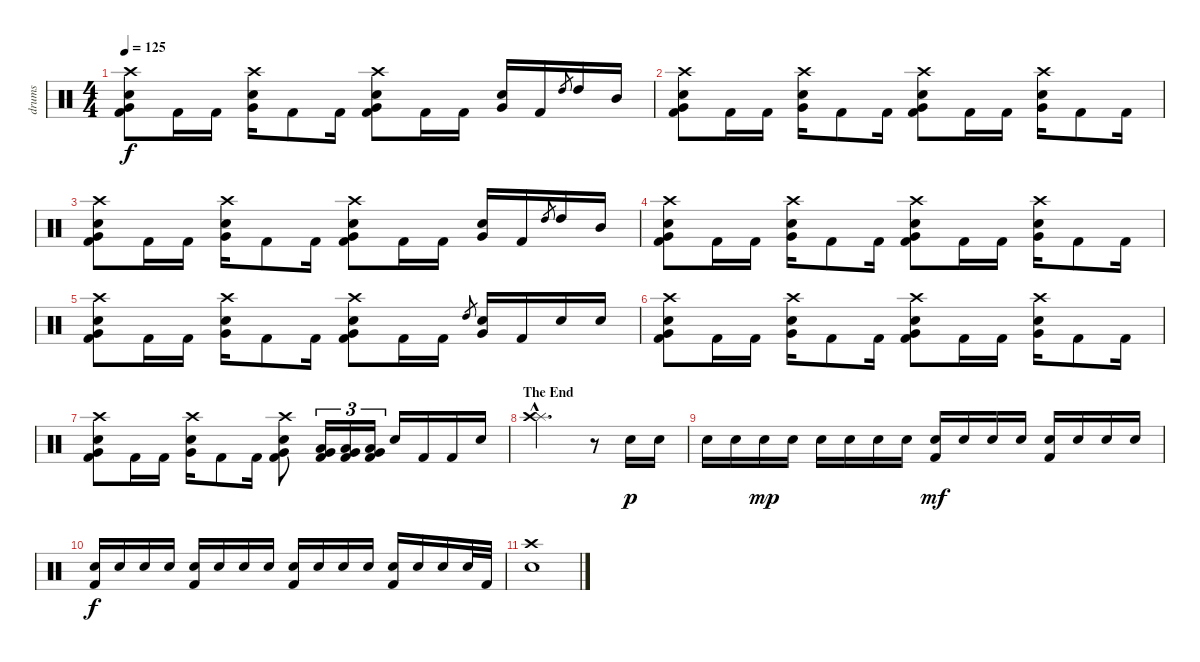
\track ("drums" "drums") {instrument percussion}
\staff {score}
\articulation defaults
\ts (4 4)
\tempo 125
\clef neutral
\ks c
("Crash high (hit)" "Electric Snare (hit)" "Very Low Tom (hit)" "Kick (hit) 2").8{dy f} "Kick (hit) 2".16 "Kick (hit) 2".16 ("Crash high (hit)" "Electric Snare (hit)" "Very Low Tom (hit)").16 "Kick (hit) 2".8 "Kick (hit) 2".16 ("Crash high (hit)" "Electric Snare (hit)" "Very Low Tom (hit)" "Kick (hit) 2").8 "Kick (hit) 2".16 "Kick (hit) 2".16 ("Electric Snare (hit)" "Very Low Tom (hit)").16 "Kick (hit) 2".16 "High Tom (hit)".8{gr} "High Tom (hit)".16 "Mid Tom (hit)".16 |
("Crash high (hit)" "Electric Snare (hit)" "Very Low Tom (hit)" "Kick (hit) 2").8 "Kick (hit) 2".16 "Kick (hit) 2".16 ("Crash high (hit)" "Electric Snare (hit)" "Very Low Tom (hit)").16 "Kick (hit) 2".8 "Kick (hit) 2".16 ("Crash high (hit)" "Electric Snare (hit)" "Very Low Tom (hit)" "Kick (hit) 2").8 "Kick (hit) 2".16 "Kick (hit) 2".16 ("Crash high (hit)" "Electric Snare (hit)" "Very Low Tom (hit)").16 "Kick (hit) 2".8 "Kick (hit) 2".16 |
("Crash high (hit)" "Electric Snare (hit)" "Very Low Tom (hit)" "Kick (hit) 2").8 "Kick (hit) 2".16 "Kick (hit) 2".16 ("Crash high (hit)" "Electric Snare (hit)" "Very Low Tom (hit)").16 "Kick (hit) 2".8 "Kick (hit) 2".16 ("Crash high (hit)" "Electric Snare (hit)" "Very Low Tom (hit)" "Kick (hit) 2").8 "Kick (hit) 2".16 "Kick (hit) 2".16 ("Electric Snare (hit)" "Very Low Tom (hit)").16 "Kick (hit) 2".16 "High Tom (hit)".8{gr} "High Tom (hit)".16 "Mid Tom (hit)".16 |
("Crash high (hit)" "Electric Snare (hit)" "Very Low Tom (hit)" "Kick (hit) 2").8 "Kick (hit) 2".16 "Kick (hit) 2".16 ("Crash high (hit)" "Electric Snare (hit)" "Very Low Tom (hit)").16 "Kick (hit) 2".8 "Kick (hit) 2".16 ("Crash high (hit)" "Electric Snare (hit)" "Very Low Tom (hit)" "Kick (hit) 2").8 "Kick (hit) 2".16 "Kick (hit) 2".16 ("Crash high (hit)" "Electric Snare (hit)" "Very Low Tom (hit)").16 "Kick (hit) 2".8 "Kick (hit) 2".16 |
("Crash high (hit)" "Electric Snare (hit)" "Very Low Tom (hit)" "Kick (hit) 2").8 "Kick (hit) 2".16 "Kick (hit) 2".16 ("Crash high (hit)" "Electric Snare (hit)" "Very Low Tom (hit)").16 "Kick (hit) 2".8 "Kick (hit) 2".16 ("Crash high (hit)" "Electric Snare (hit)" "Very Low Tom (hit)" "Kick (hit) 2").8 "Kick (hit) 2".16 "Kick (hit) 2".16 "High Tom (hit)".8{gr} ("Electric Snare (hit)" "Very Low Tom (hit)").16 "Kick (hit) 2".16 "Electric Snare (hit)".16 "Electric Snare (hit)".16 |
("Crash high (hit)" "Electric Snare (hit)" "Very Low Tom (hit)" "Kick (hit) 2").8 "Kick (hit) 2".16 "Kick (hit) 2".16 ("Crash high (hit)" "Electric Snare (hit)" "Very Low Tom (hit)").16 "Kick (hit) 2".8 "Kick (hit) 2".16 ("Crash high (hit)" "Electric Snare (hit)" "Very Low Tom (hit)" "Kick (hit) 2").8 "Kick (hit) 2".16 "Kick (hit) 2".16 ("Crash high (hit)" "Electric Snare (hit)" "Very Low Tom (hit)").16 "Kick (hit) 2".8 "Kick (hit) 2".16 |
("Crash high (hit)" "Electric Snare (hit)" "Very Low Tom (hit)" "Kick (hit) 2").8 "Kick (hit) 2".16 "Kick (hit) 2".16 ("Crash high (hit)" "Electric Snare (hit)" "Very Low Tom (hit)").16 "Kick (hit) 2".8 "Kick (hit) 2".16 ("Crash high (hit)" "Electric Snare (hit)" "Very Low Tom (hit)" "Kick (hit) 2").8 ("Low Tom (hit)" "Very Low Tom (hit)" "Kick (hit) 2").16{tu (3 2)} ("Low Tom (hit)" "Very Low Tom (hit)" "Kick (hit) 2").16{tu (3 2)} ("Low Tom (hit)" "Very Low Tom (hit)" "Kick (hit) 2").16{tu (3 2)} "Electric Snare (hit)".16 "Kick (hit) 2".16 "Kick (hit) 2".16 "Electric Snare (hit)".16 |
\section ("" "The End")
("Splash (hit)"{hac} "Crash high (hit)"{hac}).2{d} r.8 "Electric Snare (hit)".16{dy p} "Electric Snare (hit)".16 |
"Electric Snare (hit)".16 "Electric Snare (hit)".16 "Electric Snare (hit)".16{dy mp} "Electric Snare (hit)".16 "Electric Snare (hit)".16 "Electric Snare (hit)".16 "Electric Snare (hit)".16 "Electric Snare (hit)".16 ("Electric Snare (hit)" "Kick (hit) 2").16{dy mf} "Electric Snare (hit)".16 "Electric Snare (hit)".16 "Electric Snare (hit)".16 ("Electric Snare (hit)" "Kick (hit) 2").16 "Electric Snare (hit)".16 "Electric Snare (hit)".16 "Electric Snare (hit)".16 |
("Electric Snare (hit)" "Kick (hit) 2").16{dy f} "Electric Snare (hit)".16 "Electric Snare (hit)".16 "Electric Snare (hit)".16 ("Electric Snare (hit)" "Kick (hit) 2").16 "Electric Snare (hit)".16 "Electric Snare (hit)".16 "Electric Snare (hit)".16 ("Electric Snare (hit)" "Kick (hit) 2").16 "Electric Snare (hit)".16 "Electric Snare (hit)".16 "Electric Snare (hit)".16 ("Electric Snare (hit)" "Kick (hit) 2").16 "Electric Snare (hit)".16 "Electric Snare (hit)".16 "Electric Snare (hit)".32 "Kick (hit) 2".32 |
("Crash high (hit)" "Electric Snare (hit)").1
